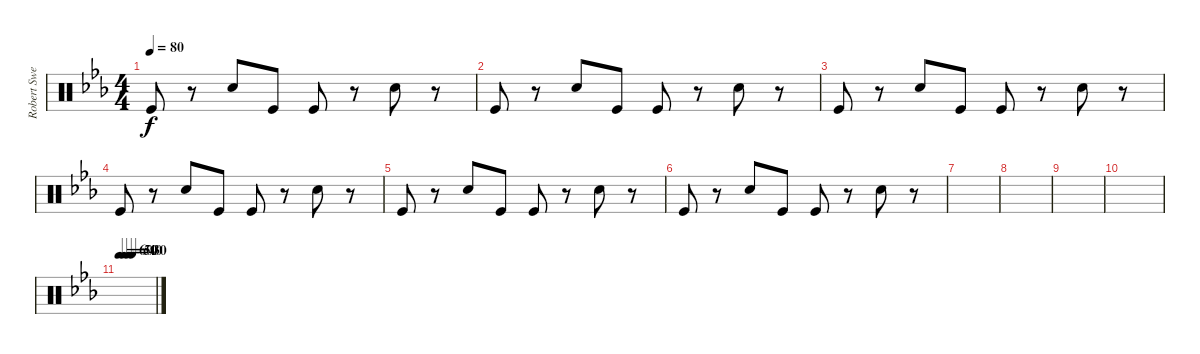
\track ("Robert Sweet" "Robert Swe") {instrument percussion}
\staff {score}
\articulation defaults
\ts (4 4)
\tempo 80
\clef neutral
\ks eb "Kick (hit)".8{dy f}
r.8 "Snare (hit) 2".8 "Kick (hit)".8 "Kick (hit)".8 r.8 "Snare (hit) 2".8 r.8 |
"Kick (hit)".8 r.8 "Snare (hit) 2".8 "Kick (hit)".8 "Kick (hit)".8 r.8 "Snare (hit) 2".8 r.8 |
"Kick (hit)".8 r.8 "Snare (hit) 2".8 "Kick (hit)".8 "Kick (hit)".8 r.8 "Snare (hit) 2".8 r.8 |
"Kick (hit)".8 r.8 "Snare (hit) 2".8 "Kick (hit)".8 "Kick (hit)".8 r.8 "Snare (hit) 2".8 r.8 |
"Kick (hit)".8 r.8 "Snare (hit) 2".8 "Kick (hit)".8 "Kick (hit)".8 r.8 "Snare (hit) 2".8 r.8 |
"Kick (hit)".8 r.8 "Snare (hit) 2".8 "Kick (hit)".8 "Kick (hit)".8 r.8 "Snare (hit) 2".8 r.8 |
|
|
|
|
\tempo 60
\tempo (50 0.125)
\tempo (40 0.25)
\tempo (30 0.375)
